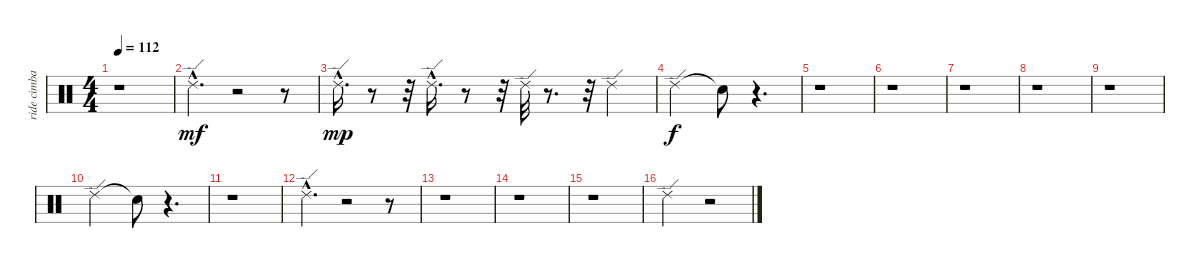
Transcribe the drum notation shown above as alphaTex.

\track ("ride cimbal" "ride cimba") {instrument percussion}
\staff {score}
\articulation defaults
\ts (4 4)
\tempo 112
\clef neutral
\ks c
r.1{dy f} |
"Ride (edge) 2"{hac}.4{d dy mf} r.2 r.8 |
"Ride (edge) 2"{hac}.16{d dy mp} r.8 r.32 "Ride (edge) 2"{hac}.16{d} r.8 r.32 "Ride (edge) 2".32 r.8{d} r.32 "Ride (edge) 2".4 |
"Ride (edge) 2".2{dy f} "Snare (hit)"{t}.8 r.4{d} |
r.1 |
r.1 |
r.1 |
r.1 |
r.1 |
"Ride (edge) 2".2 "Snare (hit)"{t}.8 r.4{d} |
r.1 |
"Ride (edge) 2"{hac}.4{d} r.2 r.8 |
r.1 |
r.1 |
r.1 |
"Ride (edge) 2".2 r.2
